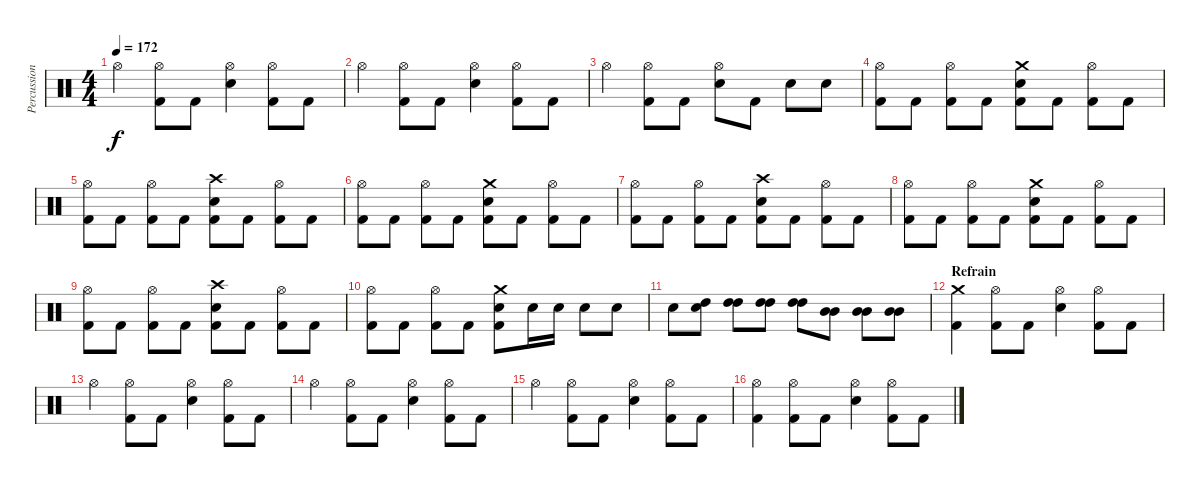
\track ("Percussions" "Percussion") {instrument percussion}
\staff {score}
\articulation defaults
\ts (4 4)
\tempo 172
\clef neutral
\ks c "Hi-Hat (open)".4{dy f}
("Hi-Hat (open)" "Kick (hit) 2").8 "Kick (hit) 2".8 ("Hi-Hat (open)" "Snare (hit) 2").4 ("Hi-Hat (open)" "Kick (hit) 2").8 "Kick (hit) 2".8 |
"Hi-Hat (open)".4 ("Hi-Hat (open)" "Kick (hit) 2").8 "Kick (hit) 2".8 ("Hi-Hat (open)" "Snare (hit) 2").4 ("Hi-Hat (open)" "Kick (hit) 2").8 "Kick (hit) 2".8 |
"Hi-Hat (open)".4 ("Hi-Hat (open)" "Kick (hit) 2").8 "Kick (hit) 2".8 ("Hi-Hat (open)" "Snare (hit) 2").8 "Kick (hit) 2".8 "Snare (hit) 2".8 "Snare (hit) 2".8 |
("Hi-Hat (open)" "Kick (hit) 2").8 "Kick (hit) 2".8 ("Hi-Hat (open)" "Kick (hit) 2").8 "Kick (hit) 2".8 ("Crash medium (hit)" "Snare (hit) 2" "Kick (hit) 2").8 "Kick (hit) 2".8 ("Hi-Hat (open)" "Kick (hit) 2").8 "Kick (hit) 2".8 |
("Hi-Hat (open)" "Kick (hit) 2").8 "Kick (hit) 2".8 ("Hi-Hat (open)" "Kick (hit) 2").8 "Kick (hit) 2".8 ("Crash high (hit)" "Snare (hit) 2" "Kick (hit) 2").8 "Kick (hit) 2".8 ("Hi-Hat (open)" "Kick (hit) 2").8 "Kick (hit) 2".8 |
("Hi-Hat (open)" "Kick (hit) 2").8 "Kick (hit) 2".8 ("Hi-Hat (open)" "Kick (hit) 2").8 "Kick (hit) 2".8 ("Crash medium (hit)" "Snare (hit) 2" "Kick (hit) 2").8 "Kick (hit) 2".8 ("Hi-Hat (open)" "Kick (hit) 2").8 "Kick (hit) 2".8 |
("Hi-Hat (open)" "Kick (hit) 2").8 "Kick (hit) 2".8 ("Hi-Hat (open)" "Kick (hit) 2").8 "Kick (hit) 2".8 ("Crash high (hit)" "Snare (hit) 2" "Kick (hit) 2").8 "Kick (hit) 2".8 ("Hi-Hat (open)" "Kick (hit) 2").8 "Kick (hit) 2".8 |
("Hi-Hat (open)" "Kick (hit) 2").8 "Kick (hit) 2".8 ("Hi-Hat (open)" "Kick (hit) 2").8 "Kick (hit) 2".8 ("Crash medium (hit)" "Snare (hit) 2" "Kick (hit) 2").8 "Kick (hit) 2".8 ("Hi-Hat (open)" "Kick (hit) 2").8 "Kick (hit) 2".8 |
("Hi-Hat (open)" "Kick (hit) 2").8 "Kick (hit) 2".8 ("Hi-Hat (open)" "Kick (hit) 2").8 "Kick (hit) 2".8 ("Crash high (hit)" "Snare (hit) 2" "Kick (hit) 2").8 "Kick (hit) 2".8 ("Hi-Hat (open)" "Kick (hit) 2").8 "Kick (hit) 2".8 |
("Hi-Hat (open)" "Kick (hit) 2").8 "Kick (hit) 2".8 ("Hi-Hat (open)" "Kick (hit) 2").8 "Kick (hit) 2".8 ("Crash medium (hit)" "Snare (hit) 2" "Kick (hit) 2").8 "Snare (hit) 2".16 "Snare (hit) 2".16 "Snare (hit) 2".8 "Snare (hit) 2".8 |
"Snare (hit) 2".8 ("High Tom (hit)" "Snare (hit) 2").8 ("High Tom (hit)" "High Tom (hit)").8 ("High Tom (hit)" "High Tom (hit)").8 ("High Tom (hit)" "High Tom (hit)").8 ("Mid Tom (hit)" "Mid Tom (hit)").8 ("Mid Tom (hit)" "Mid Tom (hit)").8 ("Mid Tom (hit)" "Mid Tom (hit)").8 |
\section ("" "Refrain")
("Crash medium (hit)" "Kick (hit) 2").4 ("Hi-Hat (open)" "Kick (hit) 2").8 "Kick (hit) 2".8 ("Hi-Hat (open)" "Snare (hit) 2").4 ("Hi-Hat (open)" "Kick (hit) 2").8 "Kick (hit) 2".8 |
"Hi-Hat (open)".4 ("Hi-Hat (open)" "Kick (hit) 2").8 "Kick (hit) 2".8 ("Hi-Hat (open)" "Snare (hit) 2").4 ("Hi-Hat (open)" "Kick (hit) 2").8 "Kick (hit) 2".8 |
"Hi-Hat (open)".4 ("Hi-Hat (open)" "Kick (hit) 2").8 "Kick (hit) 2".8 ("Hi-Hat (open)" "Snare (hit) 2").4 ("Hi-Hat (open)" "Kick (hit) 2").8 "Kick (hit) 2".8 |
"Hi-Hat (open)".4 ("Hi-Hat (open)" "Kick (hit) 2").8 "Kick (hit) 2".8 ("Hi-Hat (open)" "Snare (hit) 2").4 ("Hi-Hat (open)" "Kick (hit) 2").8 "Kick (hit) 2".8 |
("Hi-Hat (open)" "Kick (hit) 2").4 ("Hi-Hat (open)" "Kick (hit) 2").8 "Kick (hit) 2".8 ("Hi-Hat (open)" "Snare (hit) 2").4 ("Hi-Hat (open)" "Kick (hit) 2").8 "Kick (hit) 2".8
